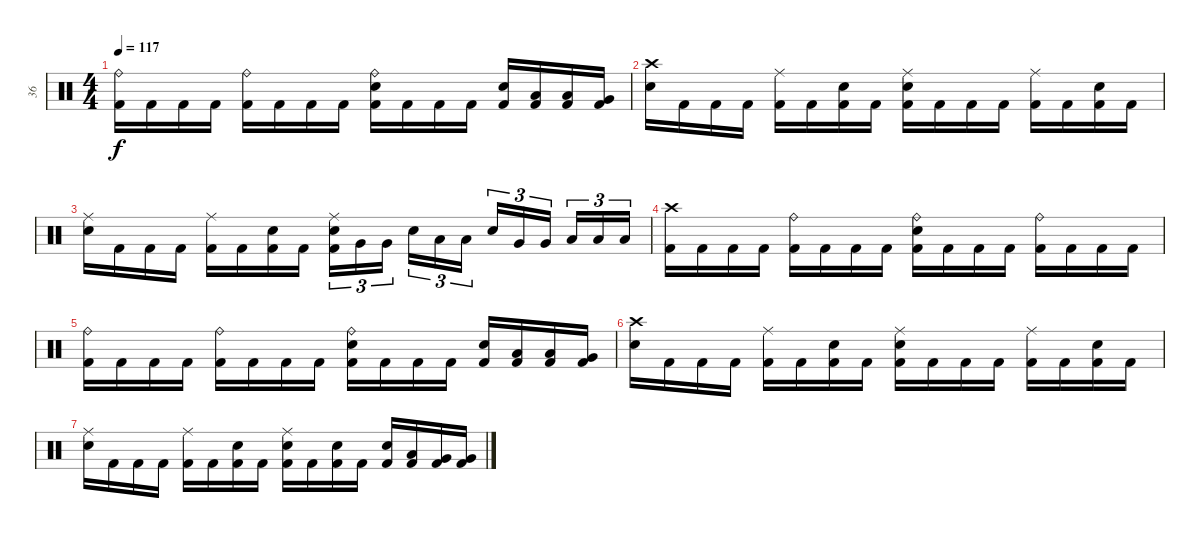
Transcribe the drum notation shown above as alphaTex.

\track ("36" "36") {instrument percussion}
\staff {score}
\articulation defaults
\ts (4 4)
\tempo 117
\clef neutral
\ks c
("Ride (bell)" "Kick (hit) 2").16{dy f} "Kick (hit) 2".16 "Kick (hit) 2".16 "Kick (hit) 2".16 ("Ride (bell)" "Kick (hit) 2").16 "Kick (hit) 2".16 "Kick (hit) 2".16 "Kick (hit) 2".16 ("Ride (bell)" "Electric Snare (hit)" "Kick (hit) 2").16 "Kick (hit) 2".16 "Kick (hit) 2".16 "Kick (hit) 2".16 ("Electric Snare (hit)" "Kick (hit) 2").16 ("Low Tom (hit)" "Kick (hit) 2").16 ("Low Tom (hit)" "Kick (hit) 2").16 ("Very Low Tom (hit)" "Kick (hit) 2").16 |
("Crash high (hit)" "Electric Snare (hit)").16 "Kick (hit) 2".16 "Kick (hit) 2".16 "Kick (hit) 2".16 ("Ride (middle)" "Kick (hit) 2").16 "Kick (hit) 2".16 ("Electric Snare (hit)" "Kick (hit) 2").16 "Kick (hit) 2".16 ("Ride (middle)" "Electric Snare (hit)" "Kick (hit) 2").16 "Kick (hit) 2".16 "Kick (hit) 2".16 "Kick (hit) 2".16 ("Ride (middle)" "Kick (hit) 2").16 "Kick (hit) 2".16 ("Electric Snare (hit)" "Kick (hit) 2").16 "Kick (hit) 2".16 |
("Ride (middle)" "Electric Snare (hit)").16 "Kick (hit) 2".16 "Kick (hit) 2".16 "Kick (hit) 2".16 ("Ride (middle)" "Kick (hit) 2").16 "Kick (hit) 2".16 ("Electric Snare (hit)" "Kick (hit) 2").16 "Kick (hit) 2".16 ("Ride (middle)" "Electric Snare (hit)" "Kick (hit) 2").16{tu (3 2)} "Very Low Tom (hit)".16{tu (3 2)} "Very Low Tom (hit)".16{tu (3 2) beam splitsecondary} "Electric Snare (hit)".16{tu (3 2)} "Low Floor Tom (hit)".16{tu (3 2)} "Low Floor Tom (hit)".16{tu (3 2)} "Electric Snare (hit)".16{tu (3 2)} "Very Low Tom (hit)".16{tu (3 2)} "Very Low Tom (hit)".16{tu (3 2) beam splitsecondary} "Low Floor Tom (hit)".16{tu (3 2)} "Low Floor Tom (hit)".16{tu (3 2)} "Low Floor Tom (hit)".16{tu (3 2)} |
("Crash high (hit)" "Kick (hit) 2").16 "Kick (hit) 2".16 "Kick (hit) 2".16 "Kick (hit) 2".16 ("Ride (bell)" "Kick (hit) 2").16 "Kick (hit) 2".16 "Kick (hit) 2".16 "Kick (hit) 2".16 ("Ride (bell)" "Electric Snare (hit)" "Kick (hit) 2").16 "Kick (hit) 2".16 "Kick (hit) 2".16 "Kick (hit) 2".16 ("Ride (bell)" "Kick (hit) 2").16 "Kick (hit) 2".16 "Kick (hit) 2".16 "Kick (hit) 2".16 |
("Ride (bell)" "Kick (hit) 2").16 "Kick (hit) 2".16 "Kick (hit) 2".16 "Kick (hit) 2".16 ("Ride (bell)" "Kick (hit) 2").16 "Kick (hit) 2".16 "Kick (hit) 2".16 "Kick (hit) 2".16 ("Ride (bell)" "Electric Snare (hit)" "Kick (hit) 2").16 "Kick (hit) 2".16 "Kick (hit) 2".16 "Kick (hit) 2".16 ("Electric Snare (hit)" "Kick (hit) 2").16 ("Low Tom (hit)" "Kick (hit) 2").16 ("Low Tom (hit)" "Kick (hit) 2").16 ("Very Low Tom (hit)" "Kick (hit) 2").16 |
("Crash high (hit)" "Electric Snare (hit)").16 "Kick (hit) 2".16 "Kick (hit) 2".16 "Kick (hit) 2".16 ("Ride (middle)" "Kick (hit) 2").16 "Kick (hit) 2".16 ("Electric Snare (hit)" "Kick (hit) 2").16 "Kick (hit) 2".16 ("Ride (middle)" "Electric Snare (hit)" "Kick (hit) 2").16 "Kick (hit) 2".16 "Kick (hit) 2".16 "Kick (hit) 2".16 ("Ride (middle)" "Kick (hit) 2").16 "Kick (hit) 2".16 ("Electric Snare (hit)" "Kick (hit) 2").16 "Kick (hit) 2".16 |
("Ride (middle)" "Electric Snare (hit)").16 "Kick (hit) 2".16 "Kick (hit) 2".16 "Kick (hit) 2".16 ("Ride (middle)" "Kick (hit) 2").16 "Kick (hit) 2".16 ("Electric Snare (hit)" "Kick (hit) 2").16 "Kick (hit) 2".16 ("Ride (middle)" "Electric Snare (hit)" "Kick (hit) 2").16 "Kick (hit) 2".16 ("Electric Snare (hit)" "Kick (hit) 2").16 "Kick (hit) 2".16 ("Electric Snare (hit)" "Kick (hit) 2").16 ("Low Tom (hit)" "Kick (hit) 2").16 ("Very Low Tom (hit)" "Kick (hit) 2").16 ("Very Low Tom (hit)" "Kick (hit) 2").16
